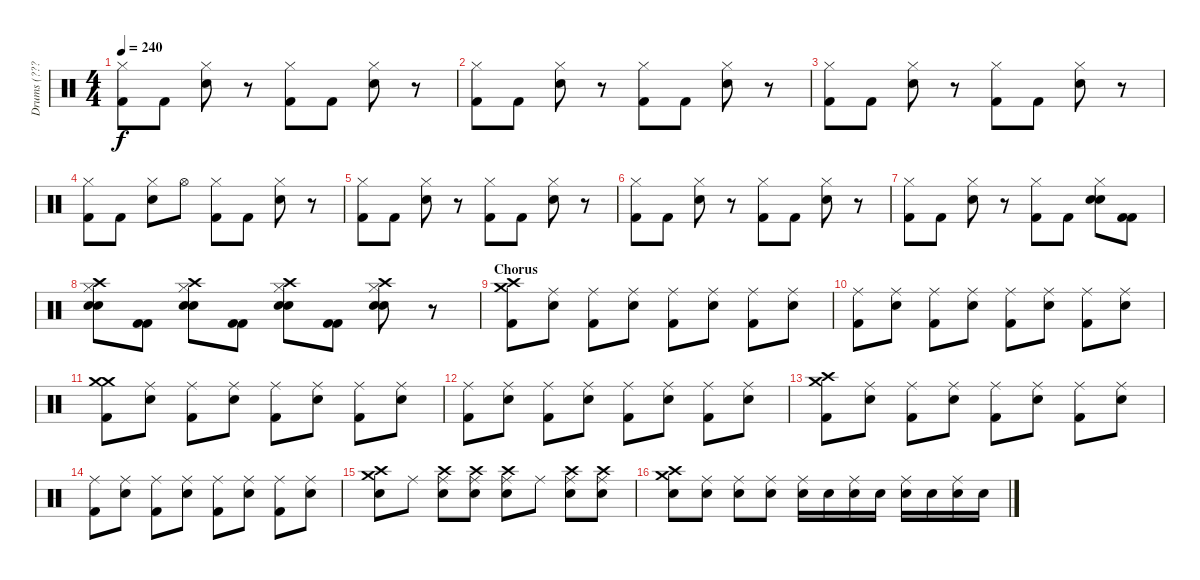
\track ("Drums (????)" "Drums (???") {instrument percussion}
\staff {score}
\articulation defaults
\ts (4 4)
\tempo 240
\clef neutral
\ks c
("Hi-Hat (closed)" "Kick (hit) 2").8{dy f} "Kick (hit) 2".8 ("Hi-Hat (closed)" "Snare (hit) 2").8 r.8 ("Hi-Hat (closed)" "Kick (hit) 2").8 "Kick (hit) 2".8 ("Hi-Hat (closed)" "Snare (hit) 2").8 r.8 |
("Hi-Hat (closed)" "Kick (hit) 2").8 "Kick (hit) 2".8 ("Hi-Hat (closed)" "Snare (hit) 2").8 r.8 ("Hi-Hat (closed)" "Kick (hit) 2").8 "Kick (hit) 2".8 ("Hi-Hat (closed)" "Snare (hit) 2").8 r.8 |
("Hi-Hat (closed)" "Kick (hit) 2").8 "Kick (hit) 2".8 ("Hi-Hat (closed)" "Snare (hit) 2").8 r.8 ("Hi-Hat (closed)" "Kick (hit) 2").8 "Kick (hit) 2".8 ("Hi-Hat (closed)" "Snare (hit) 2").8 r.8 |
("Hi-Hat (closed)" "Kick (hit) 2").8 "Kick (hit) 2".8 ("Hi-Hat (closed)" "Snare (hit) 2").8 "Hi-Hat (open)".8 ("Hi-Hat (closed)" "Kick (hit) 2").8 "Kick (hit) 2".8 ("Hi-Hat (closed)" "Snare (hit) 2").8 r.8 |
("Hi-Hat (closed)" "Kick (hit) 2").8 "Kick (hit) 2".8 ("Hi-Hat (closed)" "Snare (hit) 2").8 r.8 ("Hi-Hat (closed)" "Kick (hit) 2").8 "Kick (hit) 2".8 ("Hi-Hat (closed)" "Snare (hit) 2").8 r.8 |
("Hi-Hat (closed)" "Kick (hit) 2").8 "Kick (hit) 2".8 ("Hi-Hat (closed)" "Snare (hit) 2").8 r.8 ("Hi-Hat (closed)" "Kick (hit) 2").8 "Kick (hit) 2".8 ("Hi-Hat (closed)" "Snare (hit) 2").8 r.8 |
("Hi-Hat (closed)" "Kick (hit) 2").8 "Kick (hit) 2".8 ("Hi-Hat (closed)" "Snare (hit) 2").8 r.8 ("Hi-Hat (closed)" "Kick (hit) 2").8 "Kick (hit) 2".8 ("Hi-Hat (closed)" "Snare (hit) 2" "Snare (hit) 2").8 ("Kick (hit) 2" "Kick (hit) 2").8 |
("Hi-Hat (closed)" "Snare (hit) 2" "Snare (hit) 2" "Crash high (hit)").8 ("Kick (hit) 2" "Kick (hit) 2").8 ("Hi-Hat (closed)" "Snare (hit) 2" "Snare (hit) 2" "Crash high (hit)").8 ("Kick (hit) 2" "Kick (hit) 2").8 ("Hi-Hat (closed)" "Snare (hit) 2" "Snare (hit) 2" "Crash high (hit)").8 ("Kick (hit) 2" "Kick (hit) 2").8 ("Hi-Hat (closed)" "Snare (hit) 2" "Snare (hit) 2" "Crash high (hit)").8 r.8 |
\section ("" "Chorus")
("Crash medium (hit)" "Crash high (hit)" "Kick (hit) 2").8 ("Ride (middle)" "Snare (hit) 2").8 ("Ride (middle)" "Kick (hit) 2").8 ("Ride (middle)" "Snare (hit) 2").8 ("Ride (middle)" "Kick (hit) 2").8 ("Ride (middle)" "Snare (hit) 2").8 ("Ride (middle)" "Kick (hit) 2").8 ("Ride (middle)" "Snare (hit) 2").8 |
("Ride (middle)" "Kick (hit) 2").8 ("Ride (middle)" "Snare (hit) 2").8 ("Ride (middle)" "Kick (hit) 2").8 ("Ride (middle)" "Snare (hit) 2").8 ("Ride (middle)" "Kick (hit) 2").8 ("Ride (middle)" "Snare (hit) 2").8 ("Ride (middle)" "Kick (hit) 2").8 ("Ride (middle)" "Snare (hit) 2").8 |
("Crash medium (hit)" "Crash medium (hit)" "Kick (hit) 2").8 ("Ride (middle)" "Snare (hit) 2").8 ("Ride (middle)" "Kick (hit) 2").8 ("Ride (middle)" "Snare (hit) 2").8 ("Ride (middle)" "Kick (hit) 2").8 ("Ride (middle)" "Snare (hit) 2").8 ("Ride (middle)" "Kick (hit) 2").8 ("Ride (middle)" "Snare (hit) 2").8 |
("Ride (middle)" "Kick (hit) 2").8 ("Ride (middle)" "Snare (hit) 2").8 ("Ride (middle)" "Kick (hit) 2").8 ("Ride (middle)" "Snare (hit) 2").8 ("Ride (middle)" "Kick (hit) 2").8 ("Ride (middle)" "Snare (hit) 2").8 ("Ride (middle)" "Kick (hit) 2").8 ("Ride (middle)" "Snare (hit) 2").8 |
("Crash medium (hit)" "Crash high (hit)" "Kick (hit) 2").8 ("Ride (middle)" "Snare (hit) 2").8 ("Ride (middle)" "Kick (hit) 2").8 ("Ride (middle)" "Snare (hit) 2").8 ("Ride (middle)" "Kick (hit) 2").8 ("Ride (middle)" "Snare (hit) 2").8 ("Ride (middle)" "Kick (hit) 2").8 ("Ride (middle)" "Snare (hit) 2").8 |
("Ride (middle)" "Kick (hit) 2").8 ("Ride (middle)" "Snare (hit) 2").8 ("Ride (middle)" "Kick (hit) 2").8 ("Ride (middle)" "Snare (hit) 2").8 ("Ride (middle)" "Kick (hit) 2").8 ("Ride (middle)" "Snare (hit) 2").8 ("Ride (middle)" "Kick (hit) 2").8 ("Ride (middle)" "Snare (hit) 2").8 |
("Crash medium (hit)" "Crash high (hit)" "Snare (hit) 2").8 "Ride (middle)".8 ("Ride (middle)" "Crash high (hit)" "Snare (hit) 2").8 ("Ride (middle)" "Crash high (hit)" "Snare (hit) 2").8 ("Ride (middle)" "Crash high (hit)" "Snare (hit) 2").8 "Ride (middle)".8 ("Ride (middle)" "Crash high (hit)" "Snare (hit) 2").8 ("Ride (middle)" "Crash high (hit)" "Snare (hit) 2").8 |
("Crash medium (hit)" "Crash high (hit)" "Snare (hit) 2").8 ("Ride (middle)" "Snare (hit) 2").8 ("Ride (middle)" "Snare (hit) 2").8 ("Ride (middle)" "Snare (hit) 2").8 ("Ride (middle)" "Snare (hit) 2").16 "Snare (hit) 2".16 ("Ride (middle)" "Snare (hit) 2").16 "Snare (hit) 2".16 ("Ride (middle)" "Snare (hit) 2").16 "Snare (hit) 2".16 ("Ride (middle)" "Snare (hit) 2").16 "Snare (hit) 2".16
